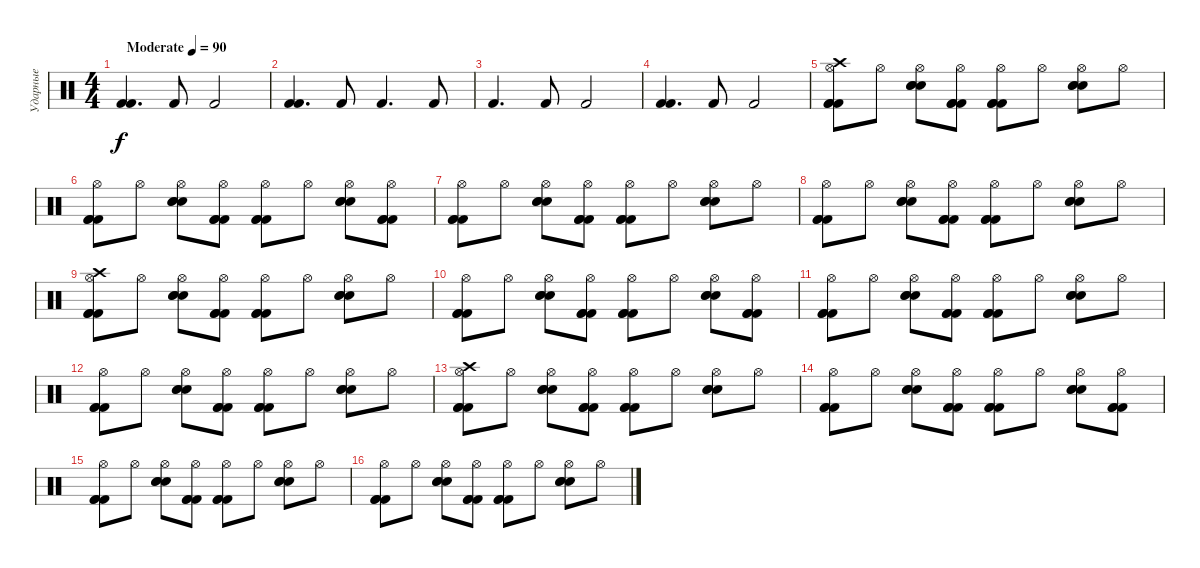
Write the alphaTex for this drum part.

\track ("Ударные" "Ударные") {instrument percussion}
\staff {score}
\articulation defaults
\ts (4 4)
\tempo (90 "Moderate")
\clef neutral
\ks c
("Kick (hit) 2" "Kick (hit) 2").4{d dy f} "Kick (hit) 2".8 "Kick (hit) 2".2 |
("Kick (hit) 2" "Kick (hit) 2").4{d} "Kick (hit) 2".8 "Kick (hit) 2".4{d} "Kick (hit) 2".8 |
"Kick (hit) 2".4{d} "Kick (hit) 2".8 "Kick (hit) 2".2 |
("Kick (hit) 2" "Kick (hit) 2").4{d} "Kick (hit) 2".8 "Kick (hit) 2".2 |
("Hi-Hat (open)" "Crash high (hit)" "Kick (hit) 2" "Kick (hit) 2" "Kick (hit) 2").8 "Hi-Hat (open)".8 ("Hi-Hat (open)" "Electric Snare (hit)" "Electric Snare (hit)" "Electric Snare (hit)").8 ("Hi-Hat (open)" "Kick (hit) 2" "Kick (hit) 2" "Kick (hit) 2").8 ("Hi-Hat (open)" "Kick (hit) 2" "Kick (hit) 2" "Kick (hit) 2").8 "Hi-Hat (open)".8 ("Hi-Hat (open)" "Electric Snare (hit)" "Electric Snare (hit)" "Electric Snare (hit)").8 "Hi-Hat (open)".8 |
("Hi-Hat (open)" "Kick (hit) 2" "Kick (hit) 2" "Kick (hit) 2").8 "Hi-Hat (open)".8 ("Hi-Hat (open)" "Electric Snare (hit)" "Electric Snare (hit)" "Electric Snare (hit)").8 ("Hi-Hat (open)" "Kick (hit) 2" "Kick (hit) 2" "Kick (hit) 2").8 ("Hi-Hat (open)" "Kick (hit) 2" "Kick (hit) 2" "Kick (hit) 2").8 "Hi-Hat (open)".8 ("Hi-Hat (open)" "Electric Snare (hit)" "Electric Snare (hit)" "Electric Snare (hit)").8 ("Hi-Hat (open)" "Kick (hit) 2" "Kick (hit) 2" "Kick (hit) 2").8 |
("Hi-Hat (open)" "Kick (hit) 2" "Kick (hit) 2" "Kick (hit) 2").8 "Hi-Hat (open)".8 ("Hi-Hat (open)" "Electric Snare (hit)" "Electric Snare (hit)" "Electric Snare (hit)").8 ("Hi-Hat (open)" "Kick (hit) 2" "Kick (hit) 2" "Kick (hit) 2").8 ("Hi-Hat (open)" "Kick (hit) 2" "Kick (hit) 2" "Kick (hit) 2").8 "Hi-Hat (open)".8 ("Hi-Hat (open)" "Electric Snare (hit)" "Electric Snare (hit)" "Electric Snare (hit)").8 "Hi-Hat (open)".8 |
("Hi-Hat (open)" "Kick (hit) 2" "Kick (hit) 2" "Kick (hit) 2").8 "Hi-Hat (open)".8 ("Hi-Hat (open)" "Electric Snare (hit)" "Electric Snare (hit)" "Electric Snare (hit)").8 ("Hi-Hat (open)" "Kick (hit) 2" "Kick (hit) 2" "Kick (hit) 2").8 ("Hi-Hat (open)" "Kick (hit) 2" "Kick (hit) 2" "Kick (hit) 2").8 "Hi-Hat (open)".8 ("Hi-Hat (open)" "Electric Snare (hit)" "Electric Snare (hit)" "Electric Snare (hit)").8 "Hi-Hat (open)".8 |
("Hi-Hat (open)" "Crash high (hit)" "Kick (hit) 2" "Kick (hit) 2" "Kick (hit) 2").8 "Hi-Hat (open)".8 ("Hi-Hat (open)" "Electric Snare (hit)" "Electric Snare (hit)" "Electric Snare (hit)").8 ("Hi-Hat (open)" "Kick (hit) 2" "Kick (hit) 2" "Kick (hit) 2").8 ("Hi-Hat (open)" "Kick (hit) 2" "Kick (hit) 2" "Kick (hit) 2").8 "Hi-Hat (open)".8 ("Hi-Hat (open)" "Electric Snare (hit)" "Electric Snare (hit)" "Electric Snare (hit)").8 "Hi-Hat (open)".8 |
("Hi-Hat (open)" "Kick (hit) 2" "Kick (hit) 2" "Kick (hit) 2").8 "Hi-Hat (open)".8 ("Hi-Hat (open)" "Electric Snare (hit)" "Electric Snare (hit)" "Electric Snare (hit)").8 ("Hi-Hat (open)" "Kick (hit) 2" "Kick (hit) 2" "Kick (hit) 2").8 ("Hi-Hat (open)" "Kick (hit) 2" "Kick (hit) 2" "Kick (hit) 2").8 "Hi-Hat (open)".8 ("Hi-Hat (open)" "Electric Snare (hit)" "Electric Snare (hit)" "Electric Snare (hit)").8 ("Hi-Hat (open)" "Kick (hit) 2" "Kick (hit) 2" "Kick (hit) 2").8 |
("Hi-Hat (open)" "Kick (hit) 2" "Kick (hit) 2" "Kick (hit) 2").8 "Hi-Hat (open)".8 ("Hi-Hat (open)" "Electric Snare (hit)" "Electric Snare (hit)" "Electric Snare (hit)").8 ("Hi-Hat (open)" "Kick (hit) 2" "Kick (hit) 2" "Kick (hit) 2").8 ("Hi-Hat (open)" "Kick (hit) 2" "Kick (hit) 2" "Kick (hit) 2").8 "Hi-Hat (open)".8 ("Hi-Hat (open)" "Electric Snare (hit)" "Electric Snare (hit)" "Electric Snare (hit)").8 "Hi-Hat (open)".8 |
("Hi-Hat (open)" "Kick (hit) 2" "Kick (hit) 2" "Kick (hit) 2").8 "Hi-Hat (open)".8 ("Hi-Hat (open)" "Electric Snare (hit)" "Electric Snare (hit)" "Electric Snare (hit)").8 ("Hi-Hat (open)" "Kick (hit) 2" "Kick (hit) 2" "Kick (hit) 2").8 ("Hi-Hat (open)" "Kick (hit) 2" "Kick (hit) 2" "Kick (hit) 2").8 "Hi-Hat (open)".8 ("Hi-Hat (open)" "Electric Snare (hit)" "Electric Snare (hit)" "Electric Snare (hit)").8 "Hi-Hat (open)".8 |
("Hi-Hat (open)" "Crash high (hit)" "Kick (hit) 2" "Kick (hit) 2" "Kick (hit) 2").8 "Hi-Hat (open)".8 ("Hi-Hat (open)" "Electric Snare (hit)" "Electric Snare (hit)" "Electric Snare (hit)").8 ("Hi-Hat (open)" "Kick (hit) 2" "Kick (hit) 2" "Kick (hit) 2").8 ("Hi-Hat (open)" "Kick (hit) 2" "Kick (hit) 2" "Kick (hit) 2").8 "Hi-Hat (open)".8 ("Hi-Hat (open)" "Electric Snare (hit)" "Electric Snare (hit)" "Electric Snare (hit)").8 "Hi-Hat (open)".8 |
("Hi-Hat (open)" "Kick (hit) 2" "Kick (hit) 2" "Kick (hit) 2").8 "Hi-Hat (open)".8 ("Hi-Hat (open)" "Electric Snare (hit)" "Electric Snare (hit)" "Electric Snare (hit)").8 ("Hi-Hat (open)" "Kick (hit) 2" "Kick (hit) 2" "Kick (hit) 2").8 ("Hi-Hat (open)" "Kick (hit) 2" "Kick (hit) 2" "Kick (hit) 2").8 "Hi-Hat (open)".8 ("Hi-Hat (open)" "Electric Snare (hit)" "Electric Snare (hit)" "Electric Snare (hit)").8 ("Hi-Hat (open)" "Kick (hit) 2" "Kick (hit) 2" "Kick (hit) 2").8 |
("Hi-Hat (open)" "Kick (hit) 2" "Kick (hit) 2" "Kick (hit) 2").8 "Hi-Hat (open)".8 ("Hi-Hat (open)" "Electric Snare (hit)" "Electric Snare (hit)" "Electric Snare (hit)").8 ("Hi-Hat (open)" "Kick (hit) 2" "Kick (hit) 2" "Kick (hit) 2").8 ("Hi-Hat (open)" "Kick (hit) 2" "Kick (hit) 2" "Kick (hit) 2").8 "Hi-Hat (open)".8 ("Hi-Hat (open)" "Electric Snare (hit)" "Electric Snare (hit)" "Electric Snare (hit)").8 "Hi-Hat (open)".8 |
("Hi-Hat (open)" "Kick (hit) 2" "Kick (hit) 2" "Kick (hit) 2").8 "Hi-Hat (open)".8 ("Hi-Hat (open)" "Electric Snare (hit)" "Electric Snare (hit)" "Electric Snare (hit)").8 ("Hi-Hat (open)" "Kick (hit) 2" "Kick (hit) 2" "Kick (hit) 2").8 ("Hi-Hat (open)" "Kick (hit) 2" "Kick (hit) 2" "Kick (hit) 2").8 "Hi-Hat (open)".8 ("Hi-Hat (open)" "Electric Snare (hit)" "Electric Snare (hit)" "Electric Snare (hit)").8 "Hi-Hat (open)".8
